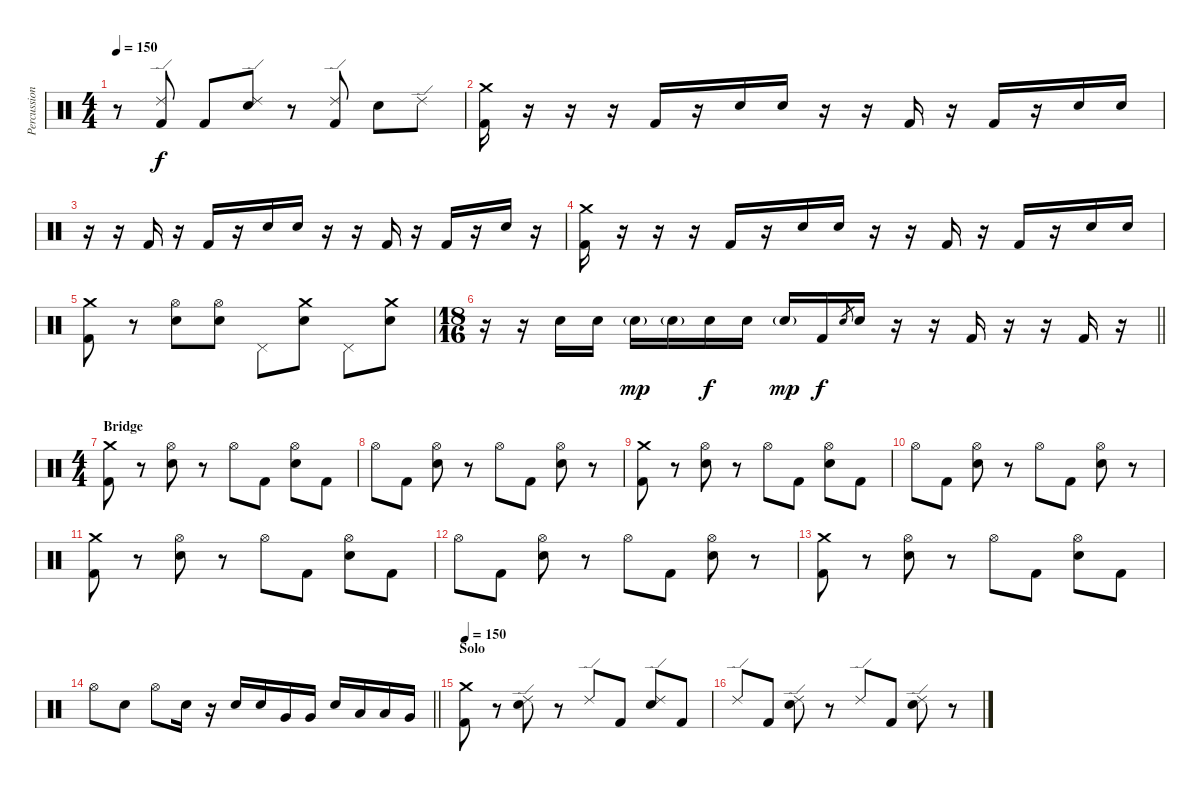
\track ("Percussion" "Percussion") {instrument percussion}
\staff {score}
\articulation defaults
\ts (4 4)
\tempo 150
\clef neutral
\ks c
r.8{dy f} ("Ride (edge) 2" "Kick (hit) 2").8 "Kick (hit) 2".8 ("Ride (edge) 2" "Electric Snare (hit)").8 r.8 ("Ride (edge) 2" "Kick (hit) 2").8 "Electric Snare (hit)".8 "Ride (edge) 2".8 |
("Crash medium (hit)" "Kick (hit) 2").16 r.16 r.16 r.16 "Kick (hit) 2".16 r.16 "Electric Snare (hit)".16 "Electric Snare (hit)".16 r.16 r.16 "Kick (hit) 2".16 r.16 "Kick (hit) 2".16 r.16 "Electric Snare (hit)".16 "Electric Snare (hit)".16 |
r.16 r.16 "Kick (hit) 2".16 r.16 "Kick (hit) 2".16 r.16 "Electric Snare (hit)".16 "Electric Snare (hit)".16 r.16 r.16 "Kick (hit) 2".16 r.16 "Kick (hit) 2".16 r.16 "Electric Snare (hit)".16 r.16 |
("Crash medium (hit)" "Kick (hit) 2").16 r.16 r.16 r.16 "Kick (hit) 2".16 r.16 "Electric Snare (hit)".16 "Electric Snare (hit)".16 r.16 r.16 "Kick (hit) 2".16 r.16 "Kick (hit) 2".16 r.16 "Electric Snare (hit)".16 "Electric Snare (hit)".16 |
("Crash medium (hit)" "Kick (hit) 2").8 r.8 ("Hi-Hat (open)" "Electric Snare (hit)").8 ("Hi-Hat (open)" "Electric Snare (hit)").8 "Pedal Hi-Hat (hit)".8 ("Crash medium (hit)" "Electric Snare (hit)").8 "Pedal Hi-Hat (hit)".8 ("Crash medium (hit)" "Electric Snare (hit)").8 |
\ts (18 16)
\barLineRight lightlight
r.16 r.16 "Electric Snare (hit)".16 "Electric Snare (hit)".16 "Electric Snare (hit)"{g}.16{dy mp} "Electric Snare (hit)"{g}.16 "Electric Snare (hit)".16{dy f} "Electric Snare (hit)".16 "Electric Snare (hit)"{g}.16{dy mp} "Kick (hit) 2".16{dy f} "Electric Snare (hit)".8{gr} "Electric Snare (hit)".16 r.16 r.16 "Kick (hit) 2".16 r.16 r.16 "Kick (hit) 2".16 r.16 |
\ts (4 4)
\section ("" "Bridge")
("Crash medium (hit)" "Kick (hit) 2").8 r.8 ("Hi-Hat (open)" "Electric Snare (hit)").8 r.8 "Hi-Hat (open)".8 "Kick (hit) 2".8 ("Hi-Hat (open)" "Electric Snare (hit)").8 "Kick (hit) 2".8 |
"Hi-Hat (open)".8 "Kick (hit) 2".8 ("Hi-Hat (open)" "Electric Snare (hit)").8 r.8 "Hi-Hat (open)".8 "Kick (hit) 2".8 ("Hi-Hat (open)" "Electric Snare (hit)").8 r.8 |
("Crash medium (hit)" "Kick (hit) 2").8 r.8 ("Hi-Hat (open)" "Electric Snare (hit)").8 r.8 "Hi-Hat (open)".8 "Kick (hit) 2".8 ("Hi-Hat (open)" "Electric Snare (hit)").8 "Kick (hit) 2".8 |
"Hi-Hat (open)".8 "Kick (hit) 2".8 ("Hi-Hat (open)" "Electric Snare (hit)").8 r.8 "Hi-Hat (open)".8 "Kick (hit) 2".8 ("Hi-Hat (open)" "Electric Snare (hit)").8 r.8 |
("Crash medium (hit)" "Kick (hit) 2").8 r.8 ("Hi-Hat (open)" "Electric Snare (hit)").8 r.8 "Hi-Hat (open)".8 "Kick (hit) 2".8 ("Hi-Hat (open)" "Electric Snare (hit)").8 "Kick (hit) 2".8 |
"Hi-Hat (open)".8 "Kick (hit) 2".8 ("Hi-Hat (open)" "Electric Snare (hit)").8 r.8 "Hi-Hat (open)".8 "Kick (hit) 2".8 ("Hi-Hat (open)" "Electric Snare (hit)").8 r.8 |
("Crash medium (hit)" "Kick (hit) 2").8 r.8 ("Hi-Hat (open)" "Electric Snare (hit)").8 r.8 "Hi-Hat (open)".8 "Kick (hit) 2".8 ("Hi-Hat (open)" "Electric Snare (hit)").8 "Kick (hit) 2".8 |
\barLineRight lightlight "Hi-Hat (open)".8 "Electric Snare (hit)".8 "Hi-Hat (open)".8 "Electric Snare (hit)".16
r.16 "Electric Snare (hit)".16 "Electric Snare (hit)".16 "Very Low Tom (hit)".16 "Very Low Tom (hit)".16 "Electric Snare (hit)".16 "Low Tom (hit)".16 "Low Tom (hit)".16 "Very Low Tom (hit)".16 |
\section ("" "Solo")
\tempo 150
("Crash medium (hit)" "Kick (hit) 2").8 r.8 ("Ride (edge) 2" "Electric Snare (hit)").8 r.8 "Ride (edge) 2".8 "Kick (hit) 2".8 ("Ride (edge) 2" "Electric Snare (hit)").8 "Kick (hit) 2".8 |
"Ride (edge) 2".8 "Kick (hit) 2".8 ("Ride (edge) 2" "Electric Snare (hit)").8 r.8 "Ride (edge) 2".8 "Kick (hit) 2".8 ("Ride (edge) 2" "Electric Snare (hit)").8 r.8
